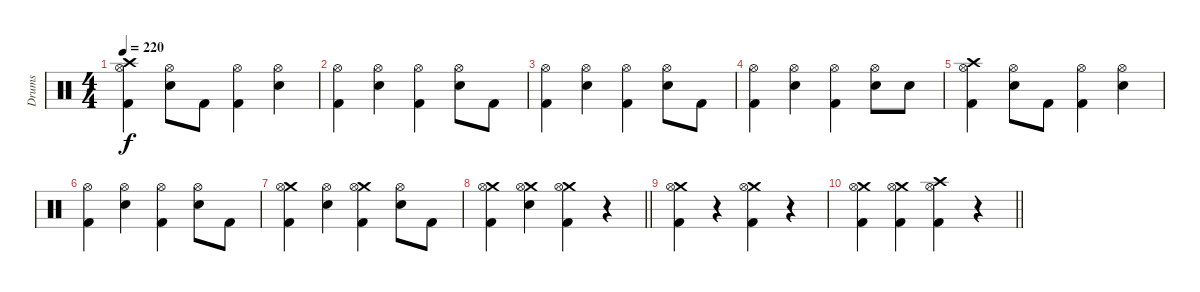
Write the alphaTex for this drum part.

\track ("Drums" "Drums") {instrument percussion}
\staff {score}
\articulation defaults
\ts (4 4)
\tempo 220
\clef neutral
\ks c
("Crash high (hit)" "Hi-Hat (open)" "Kick (hit) 2").4{dy f} ("Hi-Hat (open)" "Snare (hit) 2").8 "Kick (hit) 2".8 ("Hi-Hat (open)" "Kick (hit) 2").4 ("Hi-Hat (open)" "Snare (hit) 2").4 |
("Hi-Hat (open)" "Kick (hit) 2").4 ("Hi-Hat (open)" "Snare (hit) 2").4 ("Hi-Hat (open)" "Kick (hit) 2").4 ("Hi-Hat (open)" "Snare (hit) 2").8 "Kick (hit) 2".8 |
("Hi-Hat (open)" "Kick (hit) 2").4 ("Hi-Hat (open)" "Snare (hit) 2").4 ("Hi-Hat (open)" "Kick (hit) 2").4 ("Hi-Hat (open)" "Snare (hit) 2").8 "Kick (hit) 2".8 |
("Hi-Hat (open)" "Kick (hit) 2").4 ("Hi-Hat (open)" "Snare (hit) 2").4 ("Hi-Hat (open)" "Kick (hit) 2").4 ("Hi-Hat (open)" "Snare (hit) 2").8 "Snare (hit) 2".8 |
("Crash high (hit)" "Hi-Hat (open)" "Kick (hit) 2").4 ("Hi-Hat (open)" "Snare (hit) 2").8 "Kick (hit) 2".8 ("Hi-Hat (open)" "Kick (hit) 2").4 ("Hi-Hat (open)" "Snare (hit) 2").4 |
("Hi-Hat (open)" "Kick (hit) 2").4 ("Hi-Hat (open)" "Snare (hit) 2").4 ("Hi-Hat (open)" "Kick (hit) 2").4 ("Hi-Hat (open)" "Snare (hit) 2").8 "Kick (hit) 2".8 |
("Crash medium (hit)" "Hi-Hat (open)" "Kick (hit) 2").4 ("Hi-Hat (open)" "Snare (hit) 2").4 ("Crash medium (hit)" "Hi-Hat (open)" "Kick (hit) 2").4 ("Hi-Hat (open)" "Snare (hit) 2").8 "Kick (hit) 2".8 |
\barLineRight lightlight
("Crash medium (hit)" "Hi-Hat (open)" "Kick (hit) 2").4 ("Crash medium (hit)" "Hi-Hat (open)" "Snare (hit) 2").4 ("Crash medium (hit)" "Hi-Hat (open)" "Kick (hit) 2").4 r.4 |
("Crash medium (hit)" "Hi-Hat (open)" "Kick (hit) 2").4 r.4 ("Crash medium (hit)" "Hi-Hat (open)" "Kick (hit) 2").4 r.4 |
\barLineRight lightlight
("Crash medium (hit)" "Hi-Hat (open)" "Kick (hit) 2").4 ("Crash medium (hit)" "Hi-Hat (open)" "Kick (hit) 2").4 ("Crash high (hit)" "Hi-Hat (open)" "Kick (hit) 2").4 r.4
